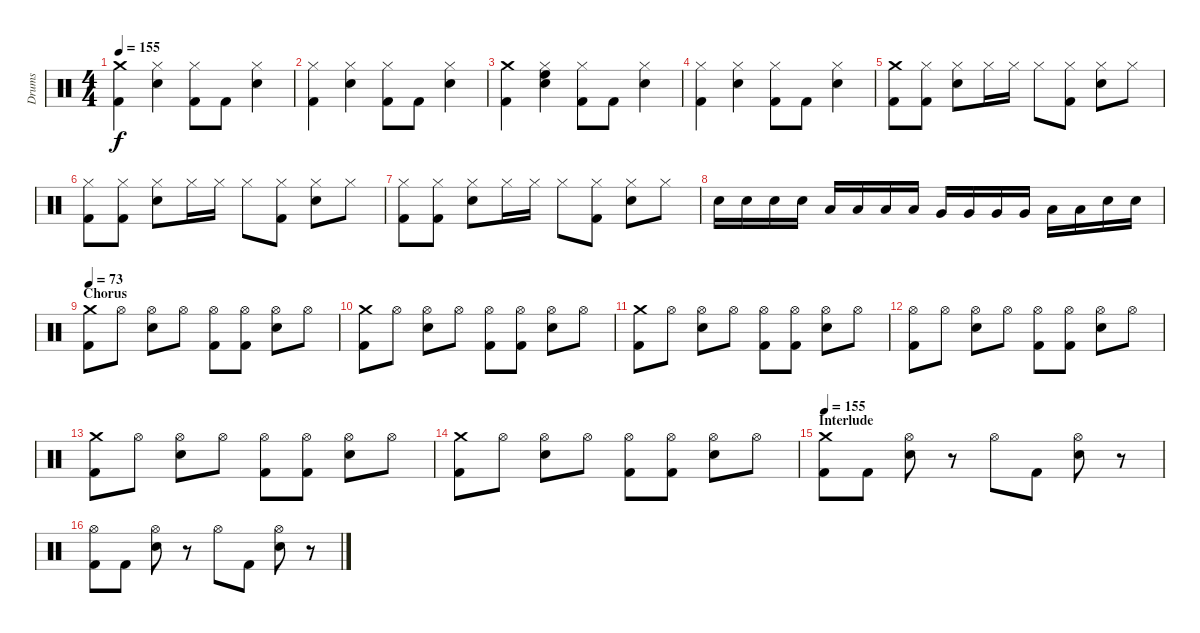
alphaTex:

\track ("Drums" "Drums") {instrument percussion}
\staff {score}
\articulation defaults
\ts (4 4)
\tempo 155
\clef neutral
\ks c
("Crash medium (hit)" "Kick (hit) 2").4{dy f} ("Hi-Hat (closed)" "Snare (hit) 2").4 ("Hi-Hat (closed)" "Kick (hit) 2").8 "Kick (hit) 2".8 ("Hi-Hat (closed)" "Snare (hit) 2").4 |
("Hi-Hat (closed)" "Kick (hit) 2").4 ("Hi-Hat (closed)" "Snare (hit) 2").4 ("Hi-Hat (closed)" "Kick (hit) 2").8 "Kick (hit) 2".8 ("Hi-Hat (closed)" "Snare (hit) 2").4 |
("Crash medium (hit)" "Kick (hit) 2").4 ("Hi-Hat (closed)" "Snare (hit) 2" "High Floor Tom (hit)").4 ("Hi-Hat (closed)" "Kick (hit) 2").8 "Kick (hit) 2".8 ("Hi-Hat (closed)" "Snare (hit) 2").4 |
("Hi-Hat (closed)" "Kick (hit) 2").4 ("Hi-Hat (closed)" "Snare (hit) 2").4 ("Hi-Hat (closed)" "Kick (hit) 2").8 "Kick (hit) 2".8 ("Hi-Hat (closed)" "Snare (hit) 2").4 |
("Crash medium (hit)" "Kick (hit) 2").8 ("Hi-Hat (closed)" "Kick (hit) 2").8 ("Hi-Hat (closed)" "Snare (hit) 2").8 "Hi-Hat (closed)".16 "Hi-Hat (closed)".16 "Hi-Hat (closed)".8 ("Hi-Hat (closed)" "Kick (hit) 2").8 ("Hi-Hat (closed)" "Snare (hit) 2").8 "Hi-Hat (closed)".8 |
("Hi-Hat (closed)" "Kick (hit) 2").8 ("Hi-Hat (closed)" "Kick (hit) 2").8 ("Hi-Hat (closed)" "Snare (hit) 2").8 "Hi-Hat (closed)".16 "Hi-Hat (closed)".16 "Hi-Hat (closed)".8 ("Hi-Hat (closed)" "Kick (hit) 2").8 ("Hi-Hat (closed)" "Snare (hit) 2").8 "Hi-Hat (closed)".8 |
("Hi-Hat (closed)" "Kick (hit) 2").8 ("Hi-Hat (closed)" "Kick (hit) 2").8 ("Hi-Hat (closed)" "Snare (hit) 2").8 "Hi-Hat (closed)".16 "Hi-Hat (closed)".16 "Hi-Hat (closed)".8 ("Hi-Hat (closed)" "Kick (hit) 2").8 ("Hi-Hat (closed)" "Snare (hit) 2").8 "Hi-Hat (closed)".8 |
"Snare (hit) 2".16 "Snare (hit) 2".16 "Snare (hit) 2".16 "Snare (hit) 2".16 "Low Tom (hit)".16 "Low Tom (hit)".16 "Low Tom (hit)".16 "Low Tom (hit)".16 "Very Low Tom (hit)".16 "Very Low Tom (hit)".16 "Very Low Tom (hit)".16 "Very Low Tom (hit)".16 "Low Floor Tom (hit)".16 "Low Floor Tom (hit)".16 "Snare (hit) 2".16 "Snare (hit) 2".16 |
\section ("" "Chorus")
\tempo 73
("Crash medium (hit)" "Kick (hit) 2").8 "Hi-Hat (open)".8 ("Hi-Hat (open)" "Snare (hit) 2").8 "Hi-Hat (open)".8 ("Hi-Hat (open)" "Kick (hit) 2").8 ("Hi-Hat (open)" "Kick (hit) 2").8 ("Hi-Hat (open)" "Snare (hit) 2").8 "Hi-Hat (open)".8 |
("Crash medium (hit)" "Kick (hit) 2").8 "Hi-Hat (open)".8 ("Hi-Hat (open)" "Snare (hit) 2").8 "Hi-Hat (open)".8 ("Hi-Hat (open)" "Kick (hit) 2").8 ("Hi-Hat (open)" "Kick (hit) 2").8 ("Hi-Hat (open)" "Snare (hit) 2").8 "Hi-Hat (open)".8 |
("Crash medium (hit)" "Kick (hit) 2").8 "Hi-Hat (open)".8 ("Hi-Hat (open)" "Snare (hit) 2").8 "Hi-Hat (open)".8 ("Hi-Hat (open)" "Kick (hit) 2").8 ("Hi-Hat (open)" "Kick (hit) 2").8 ("Hi-Hat (open)" "Snare (hit) 2").8 "Hi-Hat (open)".8 |
("Hi-Hat (open)" "Kick (hit) 2").8 "Hi-Hat (open)".8 ("Hi-Hat (open)" "Snare (hit) 2").8 "Hi-Hat (open)".8 ("Hi-Hat (open)" "Kick (hit) 2").8 ("Hi-Hat (open)" "Kick (hit) 2").8 ("Hi-Hat (open)" "Snare (hit) 2").8 "Hi-Hat (open)".8 |
("Crash medium (hit)" "Kick (hit) 2").8 "Hi-Hat (open)".8 ("Hi-Hat (open)" "Snare (hit) 2").8 "Hi-Hat (open)".8 ("Hi-Hat (open)" "Kick (hit) 2").8 ("Hi-Hat (open)" "Kick (hit) 2").8 ("Hi-Hat (open)" "Snare (hit) 2").8 "Hi-Hat (open)".8 |
("Crash medium (hit)" "Kick (hit) 2").8 "Hi-Hat (open)".8 ("Hi-Hat (open)" "Snare (hit) 2").8 "Hi-Hat (open)".8 ("Hi-Hat (open)" "Kick (hit) 2").8 ("Hi-Hat (open)" "Kick (hit) 2").8 ("Hi-Hat (open)" "Snare (hit) 2").8 "Hi-Hat (open)".8 |
\section ("" "Interlude")
\tempo 155
("Crash medium (hit)" "Kick (hit) 2").8 "Kick (hit) 2".8 ("Hi-Hat (open)" "Snare (hit) 2").8 r.8 "Hi-Hat (open)".8 "Kick (hit) 2".8 ("Hi-Hat (open)" "Snare (hit) 2").8 r.8 |
("Hi-Hat (open)" "Kick (hit) 2").8 "Kick (hit) 2".8 ("Hi-Hat (open)" "Snare (hit) 2").8 r.8 "Hi-Hat (open)".8 "Kick (hit) 2".8 ("Hi-Hat (open)" "Snare (hit) 2").8 r.8
